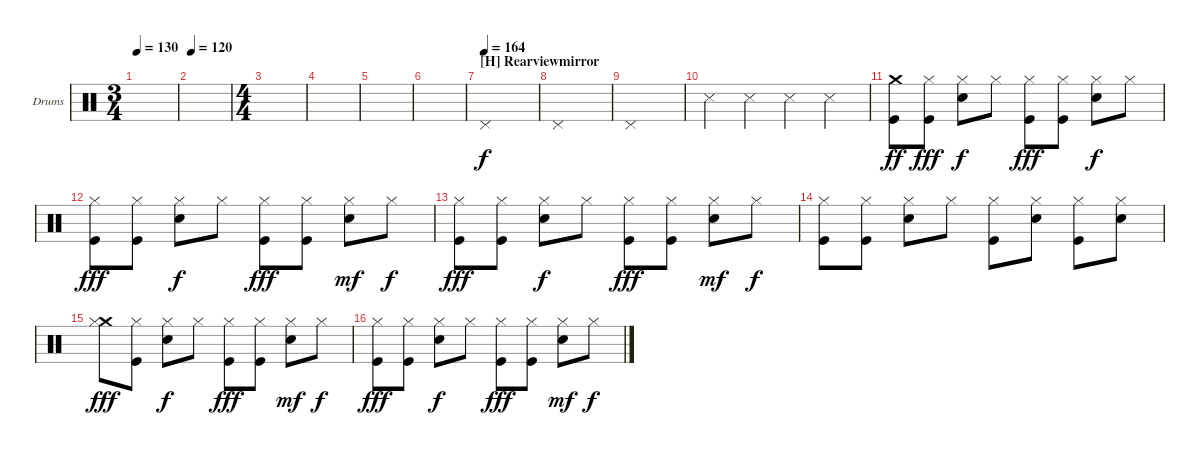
\defaultSystemsLayout 4
\bracketExtendMode nobrackets
\firstSystemTrackNameOrientation horizontal
\otherSystemsTrackNameOrientation horizontal
\track ("Dave Abbruzzese" "Drums") {solo instrument percussion}
\staff {score}
\articulation defaults
\ts (3 4)
\tempo 130
\clef neutral
\ks c
|
\tempo 120
|
\ts (4 4)
|
|
|
|
\section ("H" "Rearviewmirror")
\tempo (164)
"Pedal Hi-Hat (hit)".1 |
"Pedal Hi-Hat (hit)".1 |
"Pedal Hi-Hat (hit)".1 |
"Snare (side stick) 3".4 "Snare (side stick) 3".4 "Snare (side stick) 3".4 "Snare (side stick) 3".4 |
("Kick (hit)" "Crash medium (hit)").8{dy ff} ("Kick (hit)" "Hi-Hat (closed)").8{dy fff} ("Snare (hit) 2" "Hi-Hat (closed)").8{dy f} "Hi-Hat (closed)".8 ("Kick (hit)" "Hi-Hat (closed)").8{dy fff} ("Kick (hit)" "Hi-Hat (closed)").8 ("Snare (hit) 2" "Hi-Hat (closed)").8{dy f} "Hi-Hat (closed)".8 |
("Kick (hit)" "Hi-Hat (closed)").8{dy fff} ("Kick (hit)" "Hi-Hat (closed)").8 ("Snare (hit) 2" "Hi-Hat (closed)").8{dy f} "Hi-Hat (closed)".8 ("Kick (hit)" "Hi-Hat (closed)").8{dy fff} ("Kick (hit)" "Hi-Hat (closed)").8 ("Snare (hit) 2" "Hi-Hat (closed)").8{dy mf} "Hi-Hat (closed)".8{dy f} |
("Kick (hit)" "Hi-Hat (closed)").8{dy fff} ("Kick (hit)" "Hi-Hat (closed)").8 ("Snare (hit) 2" "Hi-Hat (closed)").8{dy f} "Hi-Hat (closed)".8 ("Kick (hit)" "Hi-Hat (closed)").8{dy fff} ("Kick (hit)" "Hi-Hat (closed)").8 ("Snare (hit) 2" "Hi-Hat (closed)").8{dy mf} "Hi-Hat (closed)".8{dy f} |
("Kick (hit)" "Hi-Hat (closed)").8 ("Kick (hit)" "Hi-Hat (closed)").8 ("Snare (hit) 2" "Hi-Hat (closed)").8 "Hi-Hat (closed)".8 ("Kick (hit)" "Hi-Hat (closed)").8 ("Snare (hit) 2" "Hi-Hat (closed)").8 ("Kick (hit)" "Hi-Hat (closed)").8 ("Snare (hit) 2" "Hi-Hat (closed)").8 |
("Crash medium (hit)" "Hi-Hat (closed)").8{dy fff} ("Kick (hit)" "Hi-Hat (closed)").8 ("Snare (hit) 2" "Hi-Hat (closed)").8{dy f} "Hi-Hat (closed)".8 ("Kick (hit)" "Hi-Hat (closed)").8{dy fff} ("Kick (hit)" "Hi-Hat (closed)").8 ("Snare (hit) 2" "Hi-Hat (closed)").8{dy mf} "Hi-Hat (closed)".8{dy f} |
("Kick (hit)" "Hi-Hat (closed)").8{dy fff} ("Kick (hit)" "Hi-Hat (closed)").8 ("Snare (hit) 2" "Hi-Hat (closed)").8{dy f} "Hi-Hat (closed)".8 ("Kick (hit)" "Hi-Hat (closed)").8{dy fff} ("Kick (hit)" "Hi-Hat (closed)").8 ("Snare (hit) 2" "Hi-Hat (closed)").8{dy mf} "Hi-Hat (closed)".8{dy f}
